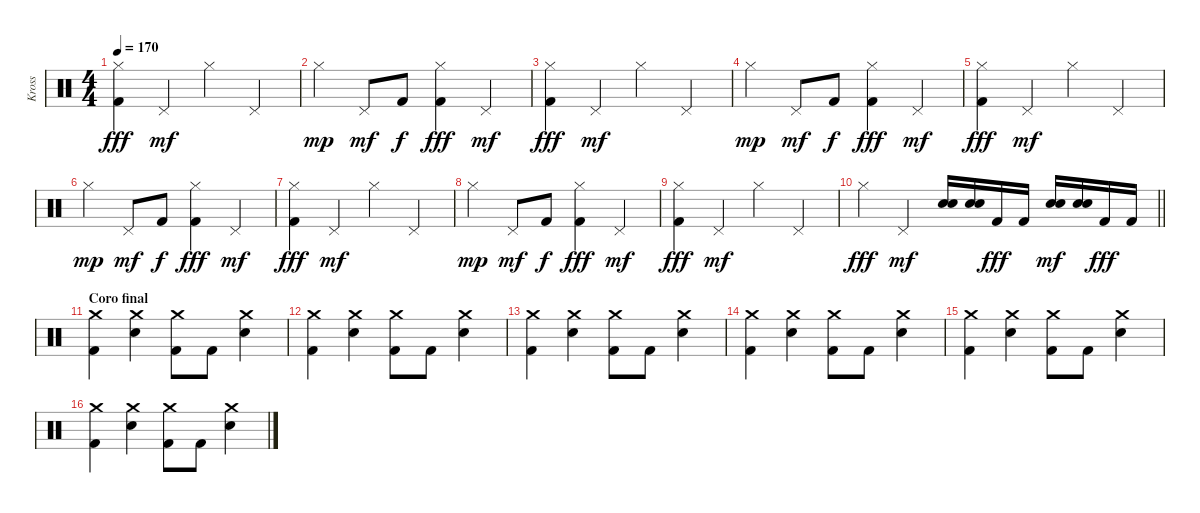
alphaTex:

\track ("Kross" "Kross") {instrument percussion}
\staff {score}
\articulation defaults
\ts (4 4)
\tempo 170
\clef neutral
\ks c
("Hi-Hat (closed)" "Kick (hit) 2").4{dy fff} "Pedal Hi-Hat (hit)".4{dy mf} "Hi-Hat (closed)".4 "Pedal Hi-Hat (hit)".4 |
"Hi-Hat (closed)".4{dy mp} "Pedal Hi-Hat (hit)".8{dy mf} "Kick (hit) 2".8{dy f} ("Hi-Hat (closed)" "Kick (hit) 2").4{dy fff} "Pedal Hi-Hat (hit)".4{dy mf} |
("Hi-Hat (closed)" "Kick (hit) 2").4{dy fff} "Pedal Hi-Hat (hit)".4{dy mf} "Hi-Hat (closed)".4 "Pedal Hi-Hat (hit)".4 |
"Hi-Hat (closed)".4{dy mp} "Pedal Hi-Hat (hit)".8{dy mf} "Kick (hit) 2".8{dy f} ("Hi-Hat (closed)" "Kick (hit) 2").4{dy fff} "Pedal Hi-Hat (hit)".4{dy mf} |
("Hi-Hat (closed)" "Kick (hit) 2").4{dy fff} "Pedal Hi-Hat (hit)".4{dy mf} "Hi-Hat (closed)".4 "Pedal Hi-Hat (hit)".4 |
"Hi-Hat (closed)".4{dy mp} "Pedal Hi-Hat (hit)".8{dy mf} "Kick (hit) 2".8{dy f} ("Hi-Hat (closed)" "Kick (hit) 2").4{dy fff} "Pedal Hi-Hat (hit)".4{dy mf} |
("Hi-Hat (closed)" "Kick (hit) 2").4{dy fff} "Pedal Hi-Hat (hit)".4{dy mf} "Hi-Hat (closed)".4 "Pedal Hi-Hat (hit)".4 |
"Hi-Hat (closed)".4{dy mp} "Pedal Hi-Hat (hit)".8{dy mf} "Kick (hit) 2".8{dy f} ("Hi-Hat (closed)" "Kick (hit) 2").4{dy fff} "Pedal Hi-Hat (hit)".4{dy mf} |
("Hi-Hat (closed)" "Kick (hit) 2").4{dy fff} "Pedal Hi-Hat (hit)".4{dy mf} "Hi-Hat (closed)".4 "Pedal Hi-Hat (hit)".4 |
\barLineRight lightlight "Hi-Hat (closed)".4{dy fff} "Pedal Hi-Hat (hit)".4{dy mf}
("Electric Snare (hit)" "Snare (hit) 2").16 ("Electric Snare (hit)" "Snare (hit) 2").16 "Kick (hit) 2".16{dy fff} "Kick (hit) 2".16 ("Electric Snare (hit)" "Snare (hit) 2").16{dy mf} ("Electric Snare (hit)" "Snare (hit) 2").16 "Kick (hit) 2".16{dy fff} "Kick (hit) 2".16 |
\section ("" "Coro final")
("Crash medium (hit)" "Kick (hit) 2").4 ("Crash medium (hit)" "Snare (hit) 2").4 ("Crash medium (hit)" "Kick (hit) 2").8 "Kick (hit) 2".8 ("Crash medium (hit)" "Snare (hit) 2").4 |
("Crash medium (hit)" "Kick (hit) 2").4 ("Crash medium (hit)" "Snare (hit) 2").4 ("Crash medium (hit)" "Kick (hit) 2").8 "Kick (hit) 2".8 ("Crash medium (hit)" "Snare (hit) 2").4 |
("Crash medium (hit)" "Kick (hit) 2").4 ("Crash medium (hit)" "Snare (hit) 2").4 ("Crash medium (hit)" "Kick (hit) 2").8 "Kick (hit) 2".8 ("Crash medium (hit)" "Snare (hit) 2").4 |
("Crash medium (hit)" "Kick (hit) 2").4 ("Crash medium (hit)" "Snare (hit) 2").4 ("Crash medium (hit)" "Kick (hit) 2").8 "Kick (hit) 2".8 ("Crash medium (hit)" "Snare (hit) 2").4 |
("Crash medium (hit)" "Kick (hit) 2").4 ("Crash medium (hit)" "Snare (hit) 2").4 ("Crash medium (hit)" "Kick (hit) 2").8 "Kick (hit) 2".8 ("Crash medium (hit)" "Snare (hit) 2").4 |
("Crash medium (hit)" "Kick (hit) 2").4 ("Crash medium (hit)" "Snare (hit) 2").4 ("Crash medium (hit)" "Kick (hit) 2").8 "Kick (hit) 2".8 ("Crash medium (hit)" "Snare (hit) 2").4
